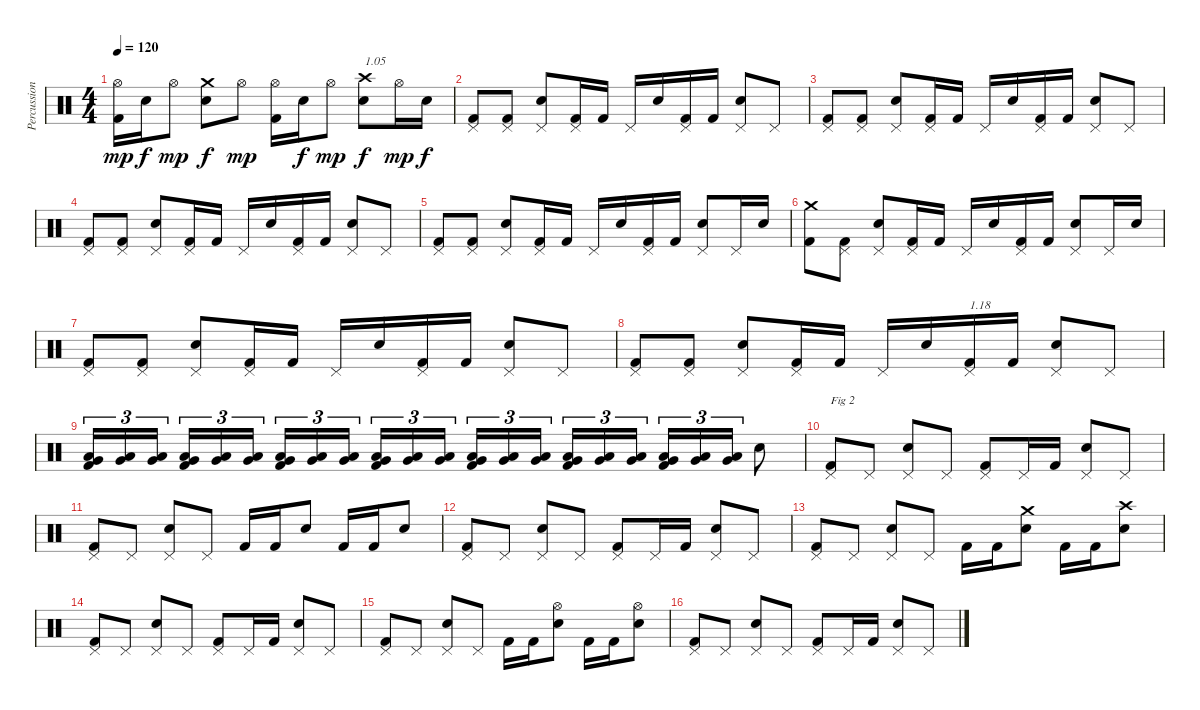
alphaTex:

\track ("Percussions" "Percussion") {instrument percussion}
\staff {score}
\articulation defaults
\ts (4 4)
\tempo 120
\clef neutral
\ks c
("Kick (hit) 2" "Hi-Hat (open)").16{dy mp} "Electric Snare (hit)".16{dy f} "Hi-Hat (open)".8{dy mp} ("Electric Snare (hit)" "Crash medium (hit)").8{dy f} "Hi-Hat (open)".8{dy mp} ("Kick (hit) 2" "Hi-Hat (open)").16 "Electric Snare (hit)".16{dy f} "Hi-Hat (open)".8{dy mp} ("Electric Snare (hit)" "Crash high (hit)").8{txt "1.05" dy f} "Hi-Hat (open)".16{dy mp} "Electric Snare (hit)".16{dy f} |
("Kick (hit) 2" "Pedal Hi-Hat (hit)").8 ("Kick (hit) 2" "Pedal Hi-Hat (hit)").8 ("Electric Snare (hit)" "Pedal Hi-Hat (hit)").8 ("Kick (hit) 2" "Pedal Hi-Hat (hit)").16 "Kick (hit) 2".16 "Pedal Hi-Hat (hit)".16 "Electric Snare (hit)".16 ("Kick (hit) 2" "Pedal Hi-Hat (hit)").16 "Kick (hit) 2".16 ("Electric Snare (hit)" "Pedal Hi-Hat (hit)").8 "Pedal Hi-Hat (hit)".8 |
("Kick (hit) 2" "Pedal Hi-Hat (hit)").8 ("Kick (hit) 2" "Pedal Hi-Hat (hit)").8 ("Electric Snare (hit)" "Pedal Hi-Hat (hit)").8 ("Kick (hit) 2" "Pedal Hi-Hat (hit)").16 "Kick (hit) 2".16 "Pedal Hi-Hat (hit)".16 "Electric Snare (hit)".16 ("Kick (hit) 2" "Pedal Hi-Hat (hit)").16 "Kick (hit) 2".16 ("Electric Snare (hit)" "Pedal Hi-Hat (hit)").8 "Pedal Hi-Hat (hit)".8 |
("Kick (hit) 2" "Pedal Hi-Hat (hit)").8 ("Kick (hit) 2" "Pedal Hi-Hat (hit)").8 ("Electric Snare (hit)" "Pedal Hi-Hat (hit)").8 ("Kick (hit) 2" "Pedal Hi-Hat (hit)").16 "Kick (hit) 2".16 "Pedal Hi-Hat (hit)".16 "Electric Snare (hit)".16 ("Kick (hit) 2" "Pedal Hi-Hat (hit)").16 "Kick (hit) 2".16 ("Electric Snare (hit)" "Pedal Hi-Hat (hit)").8 "Pedal Hi-Hat (hit)".8 |
("Kick (hit) 2" "Pedal Hi-Hat (hit)").8 ("Kick (hit) 2" "Pedal Hi-Hat (hit)").8 ("Electric Snare (hit)" "Pedal Hi-Hat (hit)").8 ("Kick (hit) 2" "Pedal Hi-Hat (hit)").16 "Kick (hit) 2".16 "Pedal Hi-Hat (hit)".16 "Electric Snare (hit)".16 ("Kick (hit) 2" "Pedal Hi-Hat (hit)").16 "Kick (hit) 2".16 ("Electric Snare (hit)" "Pedal Hi-Hat (hit)").8 "Pedal Hi-Hat (hit)".16 "Electric Snare (hit)".16 |
("Kick (hit) 2" "Crash medium (hit)").8 ("Kick (hit) 2" "Pedal Hi-Hat (hit)").8 ("Electric Snare (hit)" "Pedal Hi-Hat (hit)").8 ("Kick (hit) 2" "Pedal Hi-Hat (hit)").16 "Kick (hit) 2".16 "Pedal Hi-Hat (hit)".16 "Electric Snare (hit)".16 ("Kick (hit) 2" "Pedal Hi-Hat (hit)").16 "Kick (hit) 2".16 ("Electric Snare (hit)" "Pedal Hi-Hat (hit)").8 "Pedal Hi-Hat (hit)".16 "Electric Snare (hit)".16 |
("Kick (hit) 2" "Pedal Hi-Hat (hit)").8 ("Kick (hit) 2" "Pedal Hi-Hat (hit)").8 ("Electric Snare (hit)" "Pedal Hi-Hat (hit)").8 ("Kick (hit) 2" "Pedal Hi-Hat (hit)").16 "Kick (hit) 2".16 "Pedal Hi-Hat (hit)".16 "Electric Snare (hit)".16 ("Kick (hit) 2" "Pedal Hi-Hat (hit)").16 "Kick (hit) 2".16 ("Electric Snare (hit)" "Pedal Hi-Hat (hit)").8 "Pedal Hi-Hat (hit)".8 |
("Kick (hit) 2" "Pedal Hi-Hat (hit)").8 ("Kick (hit) 2" "Pedal Hi-Hat (hit)").8 ("Electric Snare (hit)" "Pedal Hi-Hat (hit)").8 ("Kick (hit) 2" "Pedal Hi-Hat (hit)").16 "Kick (hit) 2".16 "Pedal Hi-Hat (hit)".16 "Electric Snare (hit)".16 ("Kick (hit) 2" "Pedal Hi-Hat (hit)").16{txt "1.18"} "Kick (hit) 2".16 ("Electric Snare (hit)" "Pedal Hi-Hat (hit)").8 "Pedal Hi-Hat (hit)".8 |
("Kick (hit) 2" "Very Low Tom (hit)" "Low Floor Tom (hit)").16{tu (3 2)} ("Very Low Tom (hit)" "Low Floor Tom (hit)").16{tu (3 2)} ("Very Low Tom (hit)" "Low Floor Tom (hit)").16{tu (3 2)} ("Kick (hit) 2" "Very Low Tom (hit)" "Low Floor Tom (hit)").16{tu (3 2)} ("Very Low Tom (hit)" "Low Floor Tom (hit)").16{tu (3 2)} ("Very Low Tom (hit)" "Low Floor Tom (hit)").16{tu (3 2)} ("Kick (hit) 2" "Very Low Tom (hit)" "Low Floor Tom (hit)").16{tu (3 2)} ("Very Low Tom (hit)" "Low Floor Tom (hit)").16{tu (3 2)} ("Very Low Tom (hit)" "Low Floor Tom (hit)").16{tu (3 2)} ("Kick (hit) 2" "Very Low Tom (hit)" "Low Floor Tom (hit)").16{tu (3 2)} ("Very Low Tom (hit)" "Low Floor Tom (hit)").16{tu (3 2)} ("Very Low Tom (hit)" "Low Floor Tom (hit)").16{tu (3 2)} ("Kick (hit) 2" "Very Low Tom (hit)" "Low Floor Tom (hit)").16{tu (3 2)} ("Very Low Tom (hit)" "Low Floor Tom (hit)").16{tu (3 2)} ("Very Low Tom (hit)" "Low Floor Tom (hit)").16{tu (3 2)} ("Kick (hit) 2" "Very Low Tom (hit)" "Low Floor Tom (hit)").16{tu (3 2)} ("Very Low Tom (hit)" "Low Floor Tom (hit)").16{tu (3 2)} ("Very Low Tom (hit)" "Low Floor Tom (hit)").16{tu (3 2)} ("Kick (hit) 2" "Very Low Tom (hit)" "Low Floor Tom (hit)").16{tu (3 2)} ("Very Low Tom (hit)" "Low Floor Tom (hit)").16{tu (3 2)} ("Very Low Tom (hit)" "Low Floor Tom (hit)").16{tu (3 2)} "Electric Snare (hit)".8 |
("Kick (hit) 2" "Pedal Hi-Hat (hit)").8{txt "Fig 2"} "Pedal Hi-Hat (hit)".8 ("Electric Snare (hit)" "Pedal Hi-Hat (hit)").8 "Pedal Hi-Hat (hit)".8 ("Kick (hit) 2" "Pedal Hi-Hat (hit)").8 "Pedal Hi-Hat (hit)".16 "Kick (hit) 2".16 ("Electric Snare (hit)" "Pedal Hi-Hat (hit)").8 "Pedal Hi-Hat (hit)".8 |
("Kick (hit) 2" "Pedal Hi-Hat (hit)").8 "Pedal Hi-Hat (hit)".8 ("Electric Snare (hit)" "Pedal Hi-Hat (hit)").8 "Pedal Hi-Hat (hit)".8 "Kick (hit) 2".16 "Kick (hit) 2".16 "Electric Snare (hit)".8 "Kick (hit) 2".16 "Kick (hit) 2".16 "Electric Snare (hit)".8 |
("Kick (hit) 2" "Pedal Hi-Hat (hit)").8 "Pedal Hi-Hat (hit)".8 ("Electric Snare (hit)" "Pedal Hi-Hat (hit)").8 "Pedal Hi-Hat (hit)".8 ("Kick (hit) 2" "Pedal Hi-Hat (hit)").8 "Pedal Hi-Hat (hit)".16 "Kick (hit) 2".16 ("Electric Snare (hit)" "Pedal Hi-Hat (hit)").8 "Pedal Hi-Hat (hit)".8 |
("Kick (hit) 2" "Pedal Hi-Hat (hit)").8 "Pedal Hi-Hat (hit)".8 ("Electric Snare (hit)" "Pedal Hi-Hat (hit)").8 "Pedal Hi-Hat (hit)".8 "Kick (hit) 2".16 "Kick (hit) 2".16 ("Electric Snare (hit)" "Crash medium (hit)").8 "Kick (hit) 2".16 "Kick (hit) 2".16 ("Electric Snare (hit)" "Crash high (hit)").8 |
("Kick (hit) 2" "Pedal Hi-Hat (hit)").8 "Pedal Hi-Hat (hit)".8 ("Electric Snare (hit)" "Pedal Hi-Hat (hit)").8 "Pedal Hi-Hat (hit)".8 ("Kick (hit) 2" "Pedal Hi-Hat (hit)").8 "Pedal Hi-Hat (hit)".16 "Kick (hit) 2".16 ("Electric Snare (hit)" "Pedal Hi-Hat (hit)").8 "Pedal Hi-Hat (hit)".8 |
("Kick (hit) 2" "Pedal Hi-Hat (hit)").8 "Pedal Hi-Hat (hit)".8 ("Electric Snare (hit)" "Pedal Hi-Hat (hit)").8 "Pedal Hi-Hat (hit)".8 "Kick (hit) 2".16 "Kick (hit) 2".16 ("Electric Snare (hit)" "Hi-Hat (open)").8 "Kick (hit) 2".16 "Kick (hit) 2".16 ("Electric Snare (hit)" "Hi-Hat (open)").8 |
("Kick (hit) 2" "Pedal Hi-Hat (hit)").8 "Pedal Hi-Hat (hit)".8 ("Electric Snare (hit)" "Pedal Hi-Hat (hit)").8 "Pedal Hi-Hat (hit)".8 ("Kick (hit) 2" "Pedal Hi-Hat (hit)").8 "Pedal Hi-Hat (hit)".16 "Kick (hit) 2".16 ("Electric Snare (hit)" "Pedal Hi-Hat (hit)").8 "Pedal Hi-Hat (hit)".8
